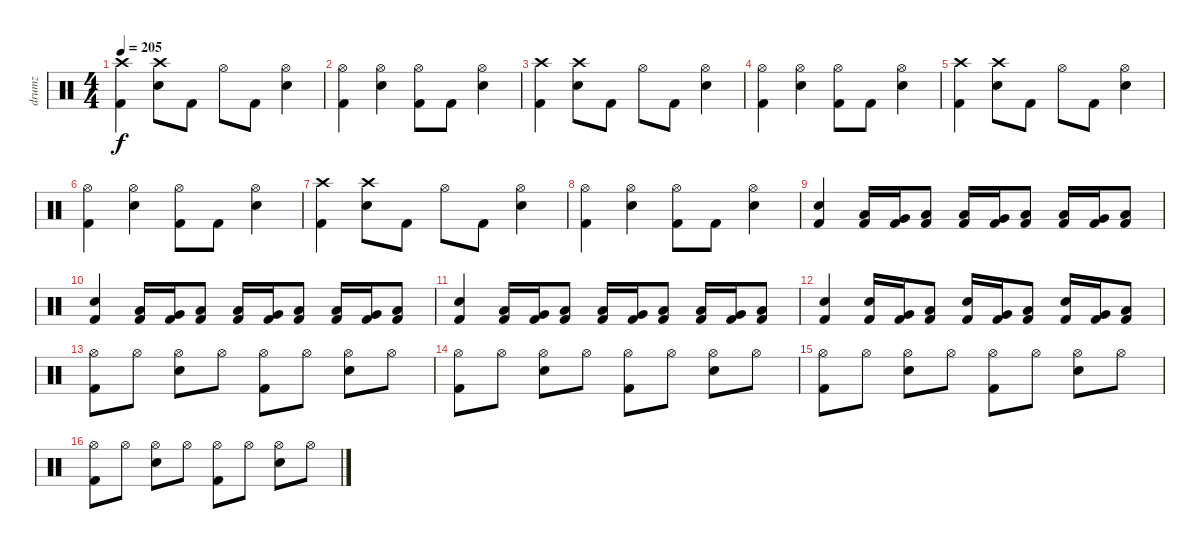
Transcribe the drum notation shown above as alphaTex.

\track ("drumz" "drumz") {instrument percussion}
\staff {score}
\articulation defaults
\ts (4 4)
\tempo 205
\clef neutral
\ks c
("Crash high (hit)" "Kick (hit) 2").4{dy f} ("Crash high (hit)" "Electric Snare (hit)").8 "Kick (hit) 2".8 "Hi-Hat (open)".8 "Kick (hit) 2".8 ("Hi-Hat (open)" "Electric Snare (hit)").4 |
("Hi-Hat (open)" "Kick (hit) 2").4 ("Hi-Hat (open)" "Electric Snare (hit)").4 ("Hi-Hat (open)" "Kick (hit) 2").8 "Kick (hit) 2".8 ("Hi-Hat (open)" "Electric Snare (hit)").4 |
("Crash high (hit)" "Kick (hit) 2").4 ("Crash high (hit)" "Electric Snare (hit)").8 "Kick (hit) 2".8 "Hi-Hat (open)".8 "Kick (hit) 2".8 ("Hi-Hat (open)" "Electric Snare (hit)").4 |
("Hi-Hat (open)" "Kick (hit) 2").4 ("Hi-Hat (open)" "Electric Snare (hit)").4 ("Hi-Hat (open)" "Kick (hit) 2").8 "Kick (hit) 2".8 ("Hi-Hat (open)" "Electric Snare (hit)").4 |
("Crash high (hit)" "Kick (hit) 2").4 ("Crash high (hit)" "Electric Snare (hit)").8 "Kick (hit) 2".8 "Hi-Hat (open)".8 "Kick (hit) 2".8 ("Hi-Hat (open)" "Electric Snare (hit)").4 |
("Hi-Hat (open)" "Kick (hit) 2").4 ("Hi-Hat (open)" "Electric Snare (hit)").4 ("Hi-Hat (open)" "Kick (hit) 2").8 "Kick (hit) 2".8 ("Hi-Hat (open)" "Electric Snare (hit)").4 |
("Crash high (hit)" "Kick (hit) 2").4 ("Crash high (hit)" "Electric Snare (hit)").8 "Kick (hit) 2".8 "Hi-Hat (open)".8 "Kick (hit) 2".8 ("Hi-Hat (open)" "Electric Snare (hit)").4 |
("Hi-Hat (open)" "Kick (hit) 2").4 ("Hi-Hat (open)" "Electric Snare (hit)").4 ("Hi-Hat (open)" "Kick (hit) 2").8 "Kick (hit) 2".8 ("Hi-Hat (open)" "Electric Snare (hit)").4 |
("Electric Snare (hit)" "Kick (hit) 2").4 ("Low Tom (hit)" "Kick (hit) 2").16 ("Very Low Tom (hit)" "Kick (hit) 2").16 ("Low Floor Tom (hit)" "Kick (hit) 2").8 ("Low Tom (hit)" "Kick (hit) 2").16 ("Very Low Tom (hit)" "Kick (hit) 2").16 ("Low Floor Tom (hit)" "Kick (hit) 2").8 ("Low Tom (hit)" "Kick (hit) 2").16 ("Very Low Tom (hit)" "Kick (hit) 2").16 ("Low Floor Tom (hit)" "Kick (hit) 2").8 |
("Electric Snare (hit)" "Kick (hit) 2").4 ("Low Tom (hit)" "Kick (hit) 2").16 ("Very Low Tom (hit)" "Kick (hit) 2").16 ("Low Floor Tom (hit)" "Kick (hit) 2").8 ("Low Tom (hit)" "Kick (hit) 2").16 ("Very Low Tom (hit)" "Kick (hit) 2").16 ("Low Floor Tom (hit)" "Kick (hit) 2").8 ("Low Tom (hit)" "Kick (hit) 2").16 ("Very Low Tom (hit)" "Kick (hit) 2").16 ("Low Floor Tom (hit)" "Kick (hit) 2").8 |
("Electric Snare (hit)" "Kick (hit) 2").4 ("Low Tom (hit)" "Kick (hit) 2").16 ("Very Low Tom (hit)" "Kick (hit) 2").16 ("Low Floor Tom (hit)" "Kick (hit) 2").8 ("Low Tom (hit)" "Kick (hit) 2").16 ("Very Low Tom (hit)" "Kick (hit) 2").16 ("Low Floor Tom (hit)" "Kick (hit) 2").8 ("Low Tom (hit)" "Kick (hit) 2").16 ("Very Low Tom (hit)" "Kick (hit) 2").16 ("Low Floor Tom (hit)" "Kick (hit) 2").8 |
("Electric Snare (hit)" "Kick (hit) 2").4 ("Electric Snare (hit)" "Kick (hit) 2").16 ("Very Low Tom (hit)" "Kick (hit) 2").16 ("Low Floor Tom (hit)" "Kick (hit) 2").8 ("Electric Snare (hit)" "Kick (hit) 2").16 ("Very Low Tom (hit)" "Kick (hit) 2").16 ("Low Floor Tom (hit)" "Kick (hit) 2").8 ("Electric Snare (hit)" "Kick (hit) 2").16 ("Very Low Tom (hit)" "Kick (hit) 2").16 ("Low Floor Tom (hit)" "Kick (hit) 2").8 |
("Hi-Hat (open)" "Kick (hit) 2").8 "Hi-Hat (open)".8 ("Hi-Hat (open)" "Electric Snare (hit)").8 "Hi-Hat (open)".8 ("Hi-Hat (open)" "Kick (hit) 2").8 "Hi-Hat (open)".8 ("Hi-Hat (open)" "Electric Snare (hit)").8 "Hi-Hat (open)".8 |
("Hi-Hat (open)" "Kick (hit) 2").8 "Hi-Hat (open)".8 ("Hi-Hat (open)" "Electric Snare (hit)").8 "Hi-Hat (open)".8 ("Hi-Hat (open)" "Kick (hit) 2").8 "Hi-Hat (open)".8 ("Hi-Hat (open)" "Electric Snare (hit)").8 "Hi-Hat (open)".8 |
("Hi-Hat (open)" "Kick (hit) 2").8 "Hi-Hat (open)".8 ("Hi-Hat (open)" "Electric Snare (hit)").8 "Hi-Hat (open)".8 ("Hi-Hat (open)" "Kick (hit) 2").8 "Hi-Hat (open)".8 ("Hi-Hat (open)" "Electric Snare (hit)").8 "Hi-Hat (open)".8 |
("Hi-Hat (open)" "Kick (hit) 2").8 "Hi-Hat (open)".8 ("Hi-Hat (open)" "Electric Snare (hit)").8 "Hi-Hat (open)".8 ("Hi-Hat (open)" "Kick (hit) 2").8 "Hi-Hat (open)".8 ("Hi-Hat (open)" "Electric Snare (hit)").8 "Hi-Hat (open)".8
